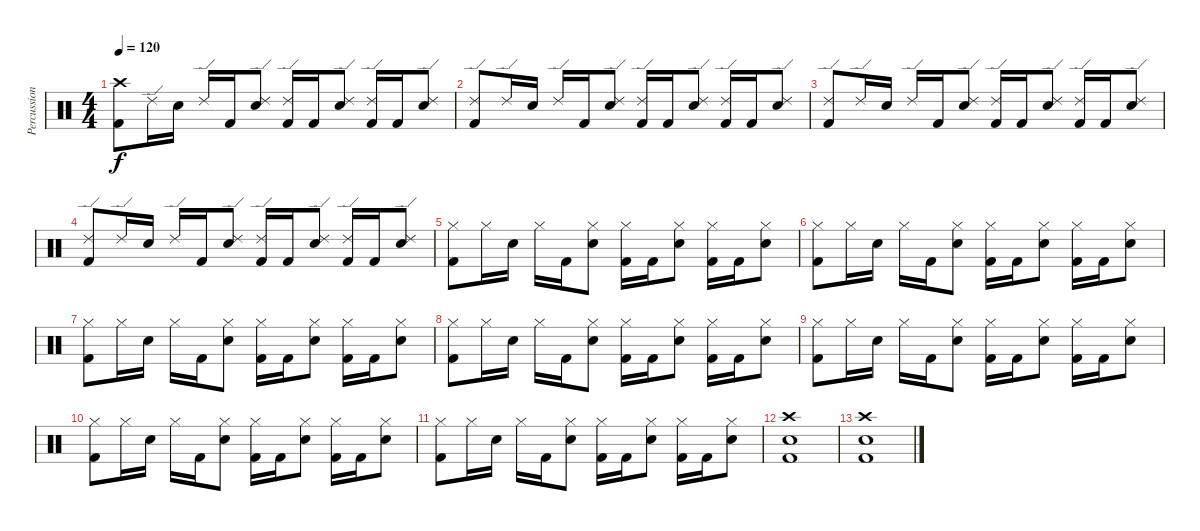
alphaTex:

\track ("Percussion" "Percussion") {instrument percussion}
\staff {score}
\articulation defaults
\ts (4 4)
\tempo 120
\clef neutral
\ks c
("Crash high (hit)" "Kick (hit) 2").8{dy f} "Ride (edge) 2".16 "Snare (hit) 2".16 "Ride (edge) 2".16 "Kick (hit) 2".16 ("Ride (edge) 2" "Snare (hit) 2").8 ("Ride (edge) 2" "Kick (hit) 2").16 "Kick (hit) 2".16 ("Ride (edge) 2" "Snare (hit) 2").8 ("Ride (edge) 2" "Kick (hit) 2").16 "Kick (hit) 2".16 ("Ride (edge) 2" "Snare (hit) 2").8 |
("Ride (edge) 2" "Kick (hit) 2").8 "Ride (edge) 2".16 "Snare (hit) 2".16 "Ride (edge) 2".16 "Kick (hit) 2".16 ("Ride (edge) 2" "Snare (hit) 2").8 ("Ride (edge) 2" "Kick (hit) 2").16 "Kick (hit) 2".16 ("Ride (edge) 2" "Snare (hit) 2").8 ("Ride (edge) 2" "Kick (hit) 2").16 "Kick (hit) 2".16 ("Ride (edge) 2" "Snare (hit) 2").8 |
("Ride (edge) 2" "Kick (hit) 2").8 "Ride (edge) 2".16 "Snare (hit) 2".16 "Ride (edge) 2".16 "Kick (hit) 2".16 ("Ride (edge) 2" "Snare (hit) 2").8 ("Ride (edge) 2" "Kick (hit) 2").16 "Kick (hit) 2".16 ("Ride (edge) 2" "Snare (hit) 2").8 ("Ride (edge) 2" "Kick (hit) 2").16 "Kick (hit) 2".16 ("Ride (edge) 2" "Snare (hit) 2").8 |
("Ride (edge) 2" "Kick (hit) 2").8 "Ride (edge) 2".16 "Snare (hit) 2".16 "Ride (edge) 2".16 "Kick (hit) 2".16 ("Ride (edge) 2" "Snare (hit) 2").8 ("Ride (edge) 2" "Kick (hit) 2").16 "Kick (hit) 2".16 ("Ride (edge) 2" "Snare (hit) 2").8 ("Ride (edge) 2" "Kick (hit) 2").16 "Kick (hit) 2".16 ("Ride (edge) 2" "Snare (hit) 2").8 |
("Hi-Hat (closed)" "Kick (hit) 2").8 "Hi-Hat (closed)".16 "Snare (hit) 2".16 "Hi-Hat (closed)".16 "Kick (hit) 2".16 ("Hi-Hat (closed)" "Snare (hit) 2").8 ("Hi-Hat (closed)" "Kick (hit) 2").16 "Kick (hit) 2".16 ("Hi-Hat (closed)" "Snare (hit) 2").8 ("Hi-Hat (closed)" "Kick (hit) 2").16 "Kick (hit) 2".16 ("Hi-Hat (closed)" "Snare (hit) 2").8 |
("Hi-Hat (closed)" "Kick (hit) 2").8 "Hi-Hat (closed)".16 "Snare (hit) 2".16 "Hi-Hat (closed)".16 "Kick (hit) 2".16 ("Hi-Hat (closed)" "Snare (hit) 2").8 ("Hi-Hat (closed)" "Kick (hit) 2").16 "Kick (hit) 2".16 ("Hi-Hat (closed)" "Snare (hit) 2").8 ("Hi-Hat (closed)" "Kick (hit) 2").16 "Kick (hit) 2".16 ("Hi-Hat (closed)" "Snare (hit) 2").8 |
("Hi-Hat (closed)" "Kick (hit) 2").8 "Hi-Hat (closed)".16 "Snare (hit) 2".16 "Hi-Hat (closed)".16 "Kick (hit) 2".16 ("Hi-Hat (closed)" "Snare (hit) 2").8 ("Hi-Hat (closed)" "Kick (hit) 2").16 "Kick (hit) 2".16 ("Hi-Hat (closed)" "Snare (hit) 2").8 ("Hi-Hat (closed)" "Kick (hit) 2").16 "Kick (hit) 2".16 ("Hi-Hat (closed)" "Snare (hit) 2").8 |
("Hi-Hat (closed)" "Kick (hit) 2").8 "Hi-Hat (closed)".16 "Snare (hit) 2".16 "Hi-Hat (closed)".16 "Kick (hit) 2".16 ("Hi-Hat (closed)" "Snare (hit) 2").8 ("Hi-Hat (closed)" "Kick (hit) 2").16 "Kick (hit) 2".16 ("Hi-Hat (closed)" "Snare (hit) 2").8 ("Hi-Hat (closed)" "Kick (hit) 2").16 "Kick (hit) 2".16 ("Hi-Hat (closed)" "Snare (hit) 2").8 |
("Hi-Hat (closed)" "Kick (hit) 2").8 "Hi-Hat (closed)".16 "Snare (hit) 2".16 "Hi-Hat (closed)".16 "Kick (hit) 2".16 ("Hi-Hat (closed)" "Snare (hit) 2").8 ("Hi-Hat (closed)" "Kick (hit) 2").16 "Kick (hit) 2".16 ("Hi-Hat (closed)" "Snare (hit) 2").8 ("Hi-Hat (closed)" "Kick (hit) 2").16 "Kick (hit) 2".16 ("Hi-Hat (closed)" "Snare (hit) 2").8 |
("Hi-Hat (closed)" "Kick (hit) 2").8 "Hi-Hat (closed)".16 "Snare (hit) 2".16 "Hi-Hat (closed)".16 "Kick (hit) 2".16 ("Hi-Hat (closed)" "Snare (hit) 2").8 ("Hi-Hat (closed)" "Kick (hit) 2").16 "Kick (hit) 2".16 ("Hi-Hat (closed)" "Snare (hit) 2").8 ("Hi-Hat (closed)" "Kick (hit) 2").16 "Kick (hit) 2".16 ("Hi-Hat (closed)" "Snare (hit) 2").8 |
("Hi-Hat (closed)" "Kick (hit) 2").8 "Hi-Hat (closed)".16 "Snare (hit) 2".16 "Hi-Hat (closed)".16 "Kick (hit) 2".16 ("Hi-Hat (closed)" "Snare (hit) 2").8 ("Hi-Hat (closed)" "Kick (hit) 2").16 "Kick (hit) 2".16 ("Hi-Hat (closed)" "Snare (hit) 2").8 ("Hi-Hat (closed)" "Kick (hit) 2").16 "Kick (hit) 2".16 ("Hi-Hat (closed)" "Snare (hit) 2").8 |
("Crash high (hit)" "Snare (hit) 2" "Kick (hit) 2").1 |
("Crash high (hit)" "Snare (hit) 2" "Kick (hit) 2").1
